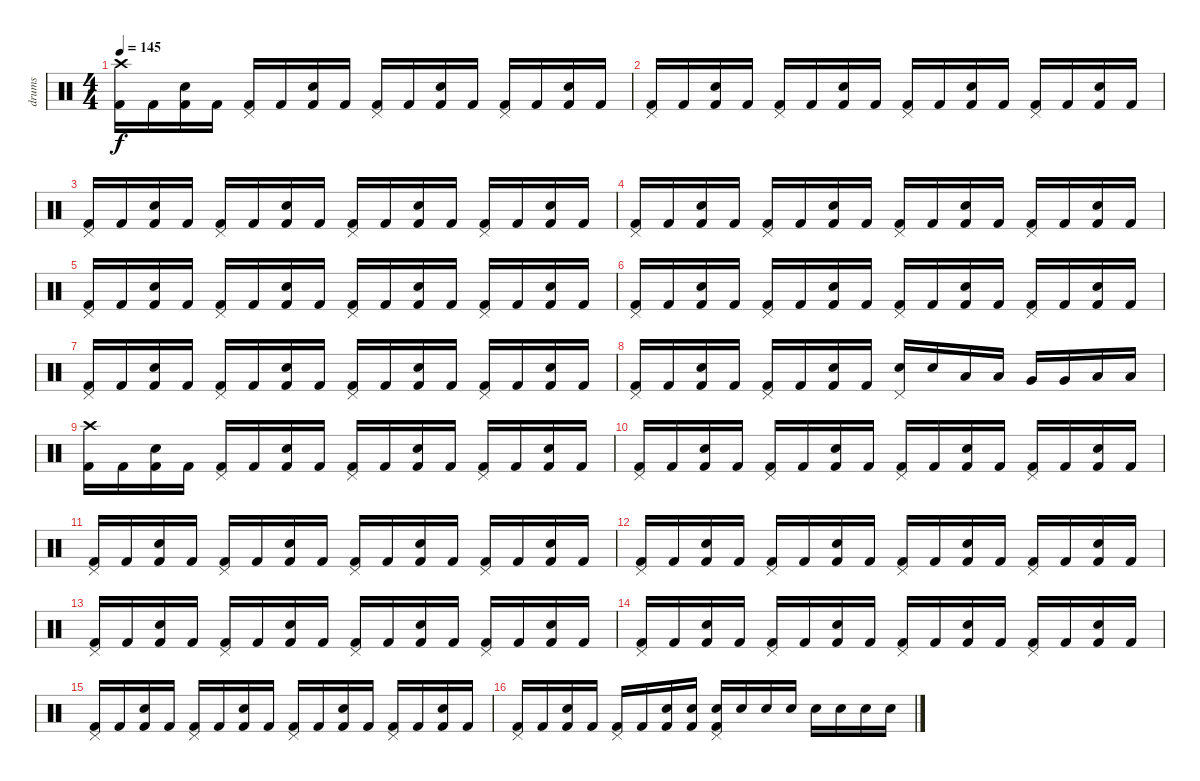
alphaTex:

\track ("drums" "drums") {instrument percussion}
\staff {score}
\articulation defaults
\ts (4 4)
\tempo 145
\clef neutral
\ks c
("Crash high (hit)" "Kick (hit) 2").16{dy f} "Kick (hit) 2".16 ("Electric Snare (hit)" "Kick (hit) 2").16 "Kick (hit) 2".16 ("Pedal Hi-Hat (hit)" "Kick (hit) 2").16 "Kick (hit) 2".16 ("Electric Snare (hit)" "Kick (hit) 2").16 "Kick (hit) 2".16 ("Pedal Hi-Hat (hit)" "Kick (hit) 2").16 "Kick (hit) 2".16 ("Electric Snare (hit)" "Kick (hit) 2").16 "Kick (hit) 2".16 ("Pedal Hi-Hat (hit)" "Kick (hit) 2").16 "Kick (hit) 2".16 ("Electric Snare (hit)" "Kick (hit) 2").16 "Kick (hit) 2".16 |
("Pedal Hi-Hat (hit)" "Kick (hit) 2").16 "Kick (hit) 2".16 ("Electric Snare (hit)" "Kick (hit) 2").16 "Kick (hit) 2".16 ("Pedal Hi-Hat (hit)" "Kick (hit) 2").16 "Kick (hit) 2".16 ("Electric Snare (hit)" "Kick (hit) 2").16 "Kick (hit) 2".16 ("Pedal Hi-Hat (hit)" "Kick (hit) 2").16 "Kick (hit) 2".16 ("Electric Snare (hit)" "Kick (hit) 2").16 "Kick (hit) 2".16 ("Pedal Hi-Hat (hit)" "Kick (hit) 2").16 "Kick (hit) 2".16 ("Electric Snare (hit)" "Kick (hit) 2").16 "Kick (hit) 2".16 |
("Pedal Hi-Hat (hit)" "Kick (hit) 2").16 "Kick (hit) 2".16 ("Electric Snare (hit)" "Kick (hit) 2").16 "Kick (hit) 2".16 ("Pedal Hi-Hat (hit)" "Kick (hit) 2").16 "Kick (hit) 2".16 ("Electric Snare (hit)" "Kick (hit) 2").16 "Kick (hit) 2".16 ("Pedal Hi-Hat (hit)" "Kick (hit) 2").16 "Kick (hit) 2".16 ("Electric Snare (hit)" "Kick (hit) 2").16 "Kick (hit) 2".16 ("Pedal Hi-Hat (hit)" "Kick (hit) 2").16 "Kick (hit) 2".16 ("Electric Snare (hit)" "Kick (hit) 2").16 "Kick (hit) 2".16 |
("Pedal Hi-Hat (hit)" "Kick (hit) 2").16 "Kick (hit) 2".16 ("Electric Snare (hit)" "Kick (hit) 2").16 "Kick (hit) 2".16 ("Pedal Hi-Hat (hit)" "Kick (hit) 2").16 "Kick (hit) 2".16 ("Electric Snare (hit)" "Kick (hit) 2").16 "Kick (hit) 2".16 ("Pedal Hi-Hat (hit)" "Kick (hit) 2").16 "Kick (hit) 2".16 ("Electric Snare (hit)" "Kick (hit) 2").16 "Kick (hit) 2".16 ("Pedal Hi-Hat (hit)" "Kick (hit) 2").16 "Kick (hit) 2".16 ("Electric Snare (hit)" "Kick (hit) 2").16 "Kick (hit) 2".16 |
("Pedal Hi-Hat (hit)" "Kick (hit) 2").16 "Kick (hit) 2".16 ("Electric Snare (hit)" "Kick (hit) 2").16 "Kick (hit) 2".16 ("Pedal Hi-Hat (hit)" "Kick (hit) 2").16 "Kick (hit) 2".16 ("Electric Snare (hit)" "Kick (hit) 2").16 "Kick (hit) 2".16 ("Pedal Hi-Hat (hit)" "Kick (hit) 2").16 "Kick (hit) 2".16 ("Electric Snare (hit)" "Kick (hit) 2").16 "Kick (hit) 2".16 ("Pedal Hi-Hat (hit)" "Kick (hit) 2").16 "Kick (hit) 2".16 ("Electric Snare (hit)" "Kick (hit) 2").16 "Kick (hit) 2".16 |
("Pedal Hi-Hat (hit)" "Kick (hit) 2").16 "Kick (hit) 2".16 ("Electric Snare (hit)" "Kick (hit) 2").16 "Kick (hit) 2".16 ("Pedal Hi-Hat (hit)" "Kick (hit) 2").16 "Kick (hit) 2".16 ("Electric Snare (hit)" "Kick (hit) 2").16 "Kick (hit) 2".16 ("Pedal Hi-Hat (hit)" "Kick (hit) 2").16 "Kick (hit) 2".16 ("Electric Snare (hit)" "Kick (hit) 2").16 "Kick (hit) 2".16 ("Pedal Hi-Hat (hit)" "Kick (hit) 2").16 "Kick (hit) 2".16 ("Electric Snare (hit)" "Kick (hit) 2").16 "Kick (hit) 2".16 |
("Pedal Hi-Hat (hit)" "Kick (hit) 2").16 "Kick (hit) 2".16 ("Electric Snare (hit)" "Kick (hit) 2").16 "Kick (hit) 2".16 ("Pedal Hi-Hat (hit)" "Kick (hit) 2").16 "Kick (hit) 2".16 ("Electric Snare (hit)" "Kick (hit) 2").16 "Kick (hit) 2".16 ("Pedal Hi-Hat (hit)" "Kick (hit) 2").16 "Kick (hit) 2".16 ("Electric Snare (hit)" "Kick (hit) 2").16 "Kick (hit) 2".16 ("Pedal Hi-Hat (hit)" "Kick (hit) 2").16 "Kick (hit) 2".16 ("Electric Snare (hit)" "Kick (hit) 2").16 "Kick (hit) 2".16 |
("Pedal Hi-Hat (hit)" "Kick (hit) 2").16{volume 4} "Kick (hit) 2".16 ("Electric Snare (hit)" "Kick (hit) 2").16 "Kick (hit) 2".16 ("Pedal Hi-Hat (hit)" "Kick (hit) 2").16 "Kick (hit) 2".16 ("Electric Snare (hit)" "Kick (hit) 2").16 "Kick (hit) 2".16 ("Pedal Hi-Hat (hit)" "Snare (hit) 2").16 "Snare (hit) 2".16 "Low Tom (hit)".16 "Low Tom (hit)".16 "Very Low Tom (hit)".16 "Very Low Tom (hit)".16 "Low Floor Tom (hit)".16 "Low Floor Tom (hit)".16 |
("Crash high (hit)" "Kick (hit) 2").16 "Kick (hit) 2".16 ("Electric Snare (hit)" "Kick (hit) 2").16 "Kick (hit) 2".16 ("Pedal Hi-Hat (hit)" "Kick (hit) 2").16 "Kick (hit) 2".16 ("Electric Snare (hit)" "Kick (hit) 2").16 "Kick (hit) 2".16 ("Pedal Hi-Hat (hit)" "Kick (hit) 2").16 "Kick (hit) 2".16 ("Electric Snare (hit)" "Kick (hit) 2").16 "Kick (hit) 2".16 ("Pedal Hi-Hat (hit)" "Kick (hit) 2").16 "Kick (hit) 2".16 ("Electric Snare (hit)" "Kick (hit) 2").16 "Kick (hit) 2".16 |
("Pedal Hi-Hat (hit)" "Kick (hit) 2").16 "Kick (hit) 2".16 ("Electric Snare (hit)" "Kick (hit) 2").16 "Kick (hit) 2".16 ("Pedal Hi-Hat (hit)" "Kick (hit) 2").16 "Kick (hit) 2".16 ("Electric Snare (hit)" "Kick (hit) 2").16 "Kick (hit) 2".16 ("Pedal Hi-Hat (hit)" "Kick (hit) 2").16 "Kick (hit) 2".16 ("Electric Snare (hit)" "Kick (hit) 2").16 "Kick (hit) 2".16 ("Pedal Hi-Hat (hit)" "Kick (hit) 2").16 "Kick (hit) 2".16 ("Electric Snare (hit)" "Kick (hit) 2").16 "Kick (hit) 2".16 |
("Pedal Hi-Hat (hit)" "Kick (hit) 2").16 "Kick (hit) 2".16 ("Electric Snare (hit)" "Kick (hit) 2").16 "Kick (hit) 2".16 ("Pedal Hi-Hat (hit)" "Kick (hit) 2").16 "Kick (hit) 2".16 ("Electric Snare (hit)" "Kick (hit) 2").16 "Kick (hit) 2".16 ("Pedal Hi-Hat (hit)" "Kick (hit) 2").16 "Kick (hit) 2".16 ("Electric Snare (hit)" "Kick (hit) 2").16 "Kick (hit) 2".16 ("Pedal Hi-Hat (hit)" "Kick (hit) 2").16 "Kick (hit) 2".16 ("Electric Snare (hit)" "Kick (hit) 2").16 "Kick (hit) 2".16 |
("Pedal Hi-Hat (hit)" "Kick (hit) 2").16 "Kick (hit) 2".16 ("Electric Snare (hit)" "Kick (hit) 2").16 "Kick (hit) 2".16 ("Pedal Hi-Hat (hit)" "Kick (hit) 2").16 "Kick (hit) 2".16 ("Electric Snare (hit)" "Kick (hit) 2").16 "Kick (hit) 2".16 ("Pedal Hi-Hat (hit)" "Kick (hit) 2").16 "Kick (hit) 2".16 ("Electric Snare (hit)" "Kick (hit) 2").16 "Kick (hit) 2".16 ("Pedal Hi-Hat (hit)" "Kick (hit) 2").16 "Kick (hit) 2".16 ("Electric Snare (hit)" "Kick (hit) 2").16 "Kick (hit) 2".16 |
("Pedal Hi-Hat (hit)" "Kick (hit) 2").16 "Kick (hit) 2".16 ("Electric Snare (hit)" "Kick (hit) 2").16 "Kick (hit) 2".16 ("Pedal Hi-Hat (hit)" "Kick (hit) 2").16 "Kick (hit) 2".16 ("Electric Snare (hit)" "Kick (hit) 2").16 "Kick (hit) 2".16 ("Pedal Hi-Hat (hit)" "Kick (hit) 2").16 "Kick (hit) 2".16 ("Electric Snare (hit)" "Kick (hit) 2").16 "Kick (hit) 2".16 ("Pedal Hi-Hat (hit)" "Kick (hit) 2").16 "Kick (hit) 2".16 ("Electric Snare (hit)" "Kick (hit) 2").16 "Kick (hit) 2".16 |
("Pedal Hi-Hat (hit)" "Kick (hit) 2").16 "Kick (hit) 2".16 ("Electric Snare (hit)" "Kick (hit) 2").16 "Kick (hit) 2".16 ("Pedal Hi-Hat (hit)" "Kick (hit) 2").16 "Kick (hit) 2".16 ("Electric Snare (hit)" "Kick (hit) 2").16 "Kick (hit) 2".16 ("Pedal Hi-Hat (hit)" "Kick (hit) 2").16 "Kick (hit) 2".16 ("Electric Snare (hit)" "Kick (hit) 2").16 "Kick (hit) 2".16 ("Pedal Hi-Hat (hit)" "Kick (hit) 2").16 "Kick (hit) 2".16 ("Electric Snare (hit)" "Kick (hit) 2").16 "Kick (hit) 2".16 |
("Pedal Hi-Hat (hit)" "Kick (hit) 2").16 "Kick (hit) 2".16 ("Electric Snare (hit)" "Kick (hit) 2").16 "Kick (hit) 2".16 ("Pedal Hi-Hat (hit)" "Kick (hit) 2").16 "Kick (hit) 2".16 ("Electric Snare (hit)" "Kick (hit) 2").16 "Kick (hit) 2".16 ("Pedal Hi-Hat (hit)" "Kick (hit) 2").16 "Kick (hit) 2".16 ("Electric Snare (hit)" "Kick (hit) 2").16 "Kick (hit) 2".16 ("Pedal Hi-Hat (hit)" "Kick (hit) 2").16 "Kick (hit) 2".16 ("Electric Snare (hit)" "Kick (hit) 2").16 "Kick (hit) 2".16 |
("Pedal Hi-Hat (hit)" "Kick (hit) 2").16 "Kick (hit) 2".16 ("Electric Snare (hit)" "Kick (hit) 2").16 "Kick (hit) 2".16 ("Pedal Hi-Hat (hit)" "Kick (hit) 2").16 "Kick (hit) 2".16 ("Electric Snare (hit)" "Kick (hit) 2").16 ("Electric Snare (hit)" "Kick (hit) 2").16 ("Pedal Hi-Hat (hit)" "Electric Snare (hit)" "Kick (hit) 2").16 "Electric Snare (hit)".16 "Electric Snare (hit)".16 "Electric Snare (hit)".16 "Electric Snare (hit)".16 "Electric Snare (hit)".16 "Electric Snare (hit)".16 "Electric Snare (hit)".16
